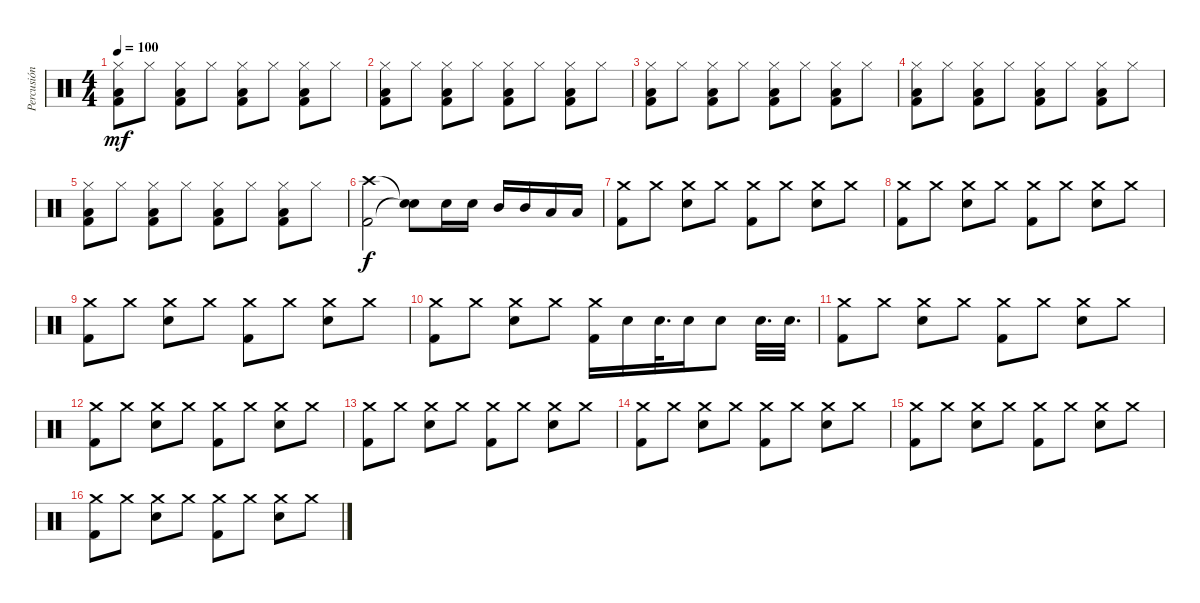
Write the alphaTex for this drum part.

\track ("Percusión" "Percusión") {instrument percussion}
\staff {score}
\articulation defaults
\ts (4 4)
\tempo 100
\clef neutral
\ks c
("Hi-Hat (closed)" "Low Floor Tom (hit)" "Kick (hit) 2").8{dy mf} "Hi-Hat (closed)".8 ("Hi-Hat (closed)" "Low Floor Tom (hit)" "Kick (hit) 2").8 "Hi-Hat (closed)".8 ("Hi-Hat (closed)" "Low Floor Tom (hit)" "Kick (hit) 2").8 "Hi-Hat (closed)".8 ("Hi-Hat (closed)" "Low Floor Tom (hit)" "Kick (hit) 2").8 "Hi-Hat (closed)".8 |
("Hi-Hat (closed)" "Low Floor Tom (hit)" "Kick (hit) 2").8 "Hi-Hat (closed)".8 ("Hi-Hat (closed)" "Low Floor Tom (hit)" "Kick (hit) 2").8 "Hi-Hat (closed)".8 ("Hi-Hat (closed)" "Low Floor Tom (hit)" "Kick (hit) 2").8 "Hi-Hat (closed)".8 ("Hi-Hat (closed)" "Low Floor Tom (hit)" "Kick (hit) 2").8 "Hi-Hat (closed)".8 |
("Hi-Hat (closed)" "Low Floor Tom (hit)" "Kick (hit) 2").8 "Hi-Hat (closed)".8 ("Hi-Hat (closed)" "Low Floor Tom (hit)" "Kick (hit) 2").8 "Hi-Hat (closed)".8 ("Hi-Hat (closed)" "Low Floor Tom (hit)" "Kick (hit) 2").8 "Hi-Hat (closed)".8 ("Hi-Hat (closed)" "Low Floor Tom (hit)" "Kick (hit) 2").8 "Hi-Hat (closed)".8 |
("Hi-Hat (closed)" "Low Floor Tom (hit)" "Kick (hit) 2").8 "Hi-Hat (closed)".8 ("Hi-Hat (closed)" "Low Floor Tom (hit)" "Kick (hit) 2").8 "Hi-Hat (closed)".8 ("Hi-Hat (closed)" "Low Floor Tom (hit)" "Kick (hit) 2").8 "Hi-Hat (closed)".8 ("Hi-Hat (closed)" "Low Floor Tom (hit)" "Kick (hit) 2").8 "Hi-Hat (closed)".8 |
("Hi-Hat (closed)" "Low Floor Tom (hit)" "Kick (hit) 2").8 "Hi-Hat (closed)".8 ("Hi-Hat (closed)" "Low Floor Tom (hit)" "Kick (hit) 2").8 "Hi-Hat (closed)".8 ("Hi-Hat (closed)" "Low Floor Tom (hit)" "Kick (hit) 2").8 "Hi-Hat (closed)".8 ("Hi-Hat (closed)" "Low Floor Tom (hit)" "Kick (hit) 2").8 "Hi-Hat (closed)".8 |
("Crash high (hit)" "Kick (hit) 2").2{dy f} ("Snare (hit)"{t} "Snare (hit)"{t}).8 "Electric Snare (hit)".16 "Electric Snare (hit)".16 "Mid Tom (hit)".16 "Mid Tom (hit)".16 "Low Tom (hit)".16 "Low Tom (hit)".16 |
("Crash medium (hit)" "Kick (hit) 2").8 "Crash medium (hit)".8 ("Crash medium (hit)" "Electric Snare (hit)").8 "Crash medium (hit)".8 ("Crash medium (hit)" "Kick (hit) 2").8 "Crash medium (hit)".8 ("Crash medium (hit)" "Electric Snare (hit)").8 "Crash medium (hit)".8 |
("Crash medium (hit)" "Kick (hit) 2").8 "Crash medium (hit)".8 ("Crash medium (hit)" "Electric Snare (hit)").8 "Crash medium (hit)".8 ("Crash medium (hit)" "Kick (hit) 2").8 "Crash medium (hit)".8 ("Crash medium (hit)" "Electric Snare (hit)").8 "Crash medium (hit)".8 |
("Crash medium (hit)" "Kick (hit) 2").8 "Crash medium (hit)".8 ("Crash medium (hit)" "Electric Snare (hit)").8 "Crash medium (hit)".8 ("Crash medium (hit)" "Kick (hit) 2").8 "Crash medium (hit)".8 ("Crash medium (hit)" "Electric Snare (hit)").8 "Crash medium (hit)".8 |
("Crash medium (hit)" "Kick (hit) 2").8 "Crash medium (hit)".8 ("Crash medium (hit)" "Electric Snare (hit)").8 "Crash medium (hit)".8 ("Crash medium (hit)" "Kick (hit) 2").16 "Electric Snare (hit)".16 "Electric Snare (hit)".32{d} "Electric Snare (hit)".16 "Electric Snare (hit)".8 "Electric Snare (hit)".32{d} "Electric Snare (hit)".32{d} |
("Crash medium (hit)" "Kick (hit) 2").8 "Crash medium (hit)".8 ("Crash medium (hit)" "Electric Snare (hit)").8 "Crash medium (hit)".8 ("Crash medium (hit)" "Kick (hit) 2").8 "Crash medium (hit)".8 ("Crash medium (hit)" "Electric Snare (hit)").8 "Crash medium (hit)".8 |
("Crash medium (hit)" "Kick (hit) 2").8 "Crash medium (hit)".8 ("Crash medium (hit)" "Electric Snare (hit)").8 "Crash medium (hit)".8 ("Crash medium (hit)" "Kick (hit) 2").8 "Crash medium (hit)".8 ("Crash medium (hit)" "Electric Snare (hit)").8 "Crash medium (hit)".8 |
("Crash medium (hit)" "Kick (hit) 2").8 "Crash medium (hit)".8 ("Crash medium (hit)" "Electric Snare (hit)").8 "Crash medium (hit)".8 ("Crash medium (hit)" "Kick (hit) 2").8 "Crash medium (hit)".8 ("Crash medium (hit)" "Electric Snare (hit)").8 "Crash medium (hit)".8 |
("Crash medium (hit)" "Kick (hit) 2").8 "Crash medium (hit)".8 ("Crash medium (hit)" "Electric Snare (hit)").8 "Crash medium (hit)".8 ("Crash medium (hit)" "Kick (hit) 2").8 "Crash medium (hit)".8 ("Crash medium (hit)" "Electric Snare (hit)").8 "Crash medium (hit)".8 |
("Crash medium (hit)" "Kick (hit) 2").8 "Crash medium (hit)".8 ("Crash medium (hit)" "Electric Snare (hit)").8 "Crash medium (hit)".8 ("Crash medium (hit)" "Kick (hit) 2").8 "Crash medium (hit)".8 ("Crash medium (hit)" "Electric Snare (hit)").8 "Crash medium (hit)".8 |
("Crash medium (hit)" "Kick (hit) 2").8 "Crash medium (hit)".8 ("Crash medium (hit)" "Electric Snare (hit)").8 "Crash medium (hit)".8 ("Crash medium (hit)" "Kick (hit) 2").8 "Crash medium (hit)".8 ("Crash medium (hit)" "Electric Snare (hit)").8 "Crash medium (hit)".8
